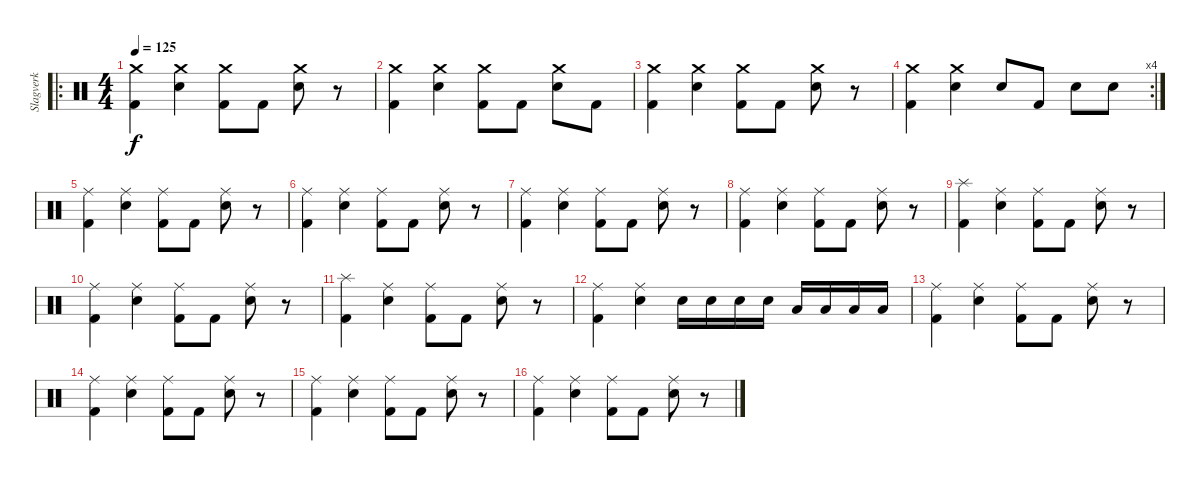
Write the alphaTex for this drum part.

\track ("Slagverk" "Slagverk") {instrument percussion}
\staff {score}
\articulation defaults
\ro
\ts (4 4)
\tempo 125
\clef neutral
\ks c
("Crash medium (hit)" "Kick (hit) 2").4{dy f} ("Crash medium (hit)" "Electric Snare (hit)").4 ("Crash medium (hit)" "Kick (hit) 2").8 "Kick (hit) 2".8 ("Crash medium (hit)" "Electric Snare (hit)").8 r.8 |
("Crash medium (hit)" "Kick (hit) 2").4 ("Crash medium (hit)" "Electric Snare (hit)").4 ("Crash medium (hit)" "Kick (hit) 2").8 "Kick (hit) 2".8 ("Crash medium (hit)" "Electric Snare (hit)").8 "Kick (hit) 2".8 |
("Crash medium (hit)" "Kick (hit) 2").4 ("Crash medium (hit)" "Electric Snare (hit)").4 ("Crash medium (hit)" "Kick (hit) 2").8 "Kick (hit) 2".8 ("Crash medium (hit)" "Electric Snare (hit)").8 r.8 |
\rc 4
("Crash medium (hit)" "Kick (hit) 2").4 ("Crash medium (hit)" "Electric Snare (hit)").4 "Electric Snare (hit)".8 "Kick (hit) 2".8 "Electric Snare (hit)".8 "Electric Snare (hit)".8 |
("Ride (middle)" "Kick (hit) 2").4 ("Ride (middle)" "Electric Snare (hit)").4 ("Ride (middle)" "Kick (hit) 2").8 "Kick (hit) 2".8 ("Ride (middle)" "Electric Snare (hit)").8 r.8 |
("Ride (middle)" "Kick (hit) 2").4 ("Ride (middle)" "Electric Snare (hit)").4 ("Ride (middle)" "Kick (hit) 2").8 "Kick (hit) 2".8 ("Ride (middle)" "Electric Snare (hit)").8 r.8 |
("Ride (middle)" "Kick (hit) 2").4 ("Ride (middle)" "Electric Snare (hit)").4 ("Ride (middle)" "Kick (hit) 2").8 "Kick (hit) 2".8 ("Ride (middle)" "Electric Snare (hit)").8 r.8 |
("Ride (middle)" "Kick (hit) 2").4 ("Ride (middle)" "Electric Snare (hit)").4 ("Ride (middle)" "Kick (hit) 2").8 "Kick (hit) 2".8 ("Ride (middle)" "Electric Snare (hit)").8 r.8 |
("Splash (hit)" "Kick (hit) 2").4 ("Ride (middle)" "Electric Snare (hit)").4 ("Ride (middle)" "Kick (hit) 2").8 "Kick (hit) 2".8 ("Ride (middle)" "Electric Snare (hit)").8 r.8 |
("Ride (middle)" "Kick (hit) 2").4 ("Ride (middle)" "Electric Snare (hit)").4 ("Ride (middle)" "Kick (hit) 2").8 "Kick (hit) 2".8 ("Ride (middle)" "Electric Snare (hit)").8 r.8 |
("Splash (hit)" "Kick (hit) 2").4 ("Ride (middle)" "Electric Snare (hit)").4 ("Ride (middle)" "Kick (hit) 2").8 "Kick (hit) 2".8 ("Ride (middle)" "Electric Snare (hit)").8 r.8 |
("Ride (middle)" "Kick (hit) 2").4 ("Ride (middle)" "Electric Snare (hit)").4 "Electric Snare (hit)".16 "Electric Snare (hit)".16 "Electric Snare (hit)".16 "Electric Snare (hit)".16 "Low Tom (hit)".16 "Low Tom (hit)".16 "Low Tom (hit)".16 "Low Tom (hit)".16 |
("Ride (middle)" "Kick (hit) 2").4 ("Ride (middle)" "Electric Snare (hit)").4 ("Ride (middle)" "Kick (hit) 2").8 "Kick (hit) 2".8 ("Ride (middle)" "Electric Snare (hit)").8 r.8 |
("Ride (middle)" "Kick (hit) 2").4 ("Ride (middle)" "Electric Snare (hit)").4 ("Ride (middle)" "Kick (hit) 2").8 "Kick (hit) 2".8 ("Ride (middle)" "Electric Snare (hit)").8 r.8 |
("Ride (middle)" "Kick (hit) 2").4 ("Ride (middle)" "Electric Snare (hit)").4 ("Ride (middle)" "Kick (hit) 2").8 "Kick (hit) 2".8 ("Ride (middle)" "Electric Snare (hit)").8 r.8 |
("Ride (middle)" "Kick (hit) 2").4 ("Ride (middle)" "Electric Snare (hit)").4 ("Ride (middle)" "Kick (hit) 2").8 "Kick (hit) 2".8 ("Ride (middle)" "Electric Snare (hit)").8 r.8
